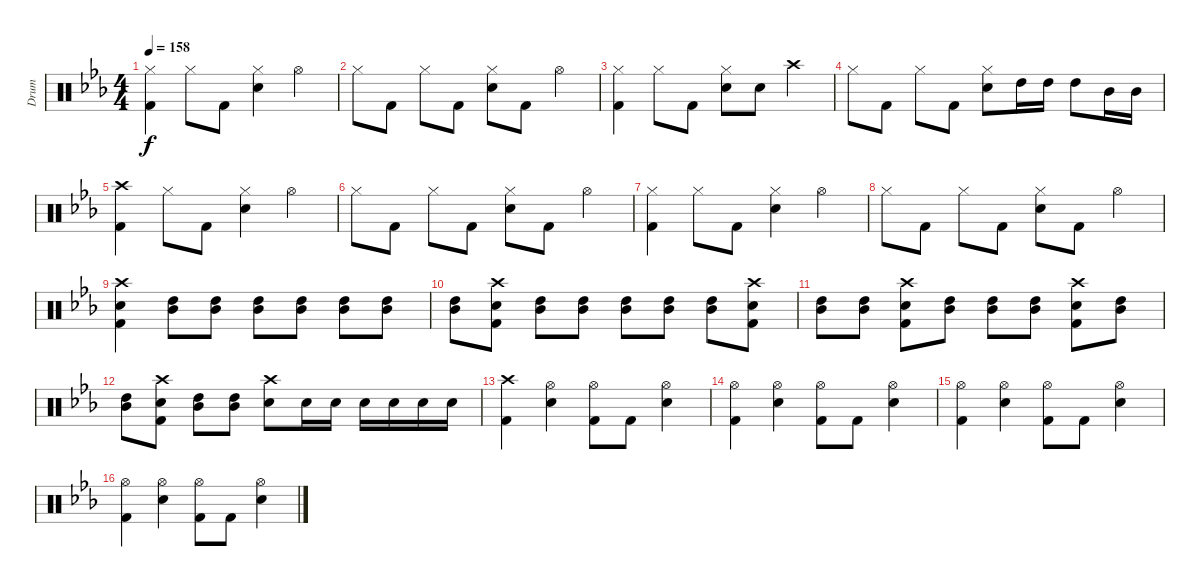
\track ("Drum" "Drum") {instrument percussion}
\staff {score}
\articulation defaults
\ts (4 4)
\tempo 158
\clef neutral
\ks eb
("Hi-Hat (closed)" "Kick (hit) 2").4{dy f} "Hi-Hat (closed)".8 "Kick (hit) 2".8 ("Hi-Hat (closed)" "Snare (hit) 2").4 "Hi-Hat (open)".4 |
"Hi-Hat (closed)".8 "Kick (hit) 2".8 "Hi-Hat (closed)".8 "Kick (hit) 2".8 ("Hi-Hat (closed)" "Snare (hit) 2").8 "Kick (hit) 2".8 "Hi-Hat (open)".4 |
("Hi-Hat (closed)" "Kick (hit) 2").4 "Hi-Hat (closed)".8 "Kick (hit) 2".8 ("Hi-Hat (closed)" "Snare (hit) 2").8 "Snare (hit) 2".8 "Crash high (hit)".4 |
"Hi-Hat (closed)".8 "Kick (hit) 2".8 "Hi-Hat (closed)".8 "Kick (hit) 2".8 ("Hi-Hat (closed)" "Snare (hit) 2").8 "High Tom (hit)".16 "High Tom (hit)".16 "High Tom (hit)".8 "Mid Tom (hit)".16 "Mid Tom (hit)".16 |
("Crash high (hit)" "Kick (hit) 2").4 "Hi-Hat (closed)".8 "Kick (hit) 2".8 ("Hi-Hat (closed)" "Snare (hit) 2").4 "Hi-Hat (open)".4 |
"Hi-Hat (closed)".8 "Kick (hit) 2".8 "Hi-Hat (closed)".8 "Kick (hit) 2".8 ("Hi-Hat (closed)" "Snare (hit) 2").8 "Kick (hit) 2".8 "Hi-Hat (open)".4 |
("Hi-Hat (closed)" "Kick (hit) 2").4 "Hi-Hat (closed)".8 "Kick (hit) 2".8 ("Hi-Hat (closed)" "Snare (hit) 2").4 "Hi-Hat (open)".4 |
"Hi-Hat (closed)".8 "Kick (hit) 2".8 "Hi-Hat (closed)".8 "Kick (hit) 2".8 ("Hi-Hat (closed)" "Snare (hit) 2").8 "Kick (hit) 2".8 "Hi-Hat (open)".4 |
("Crash high (hit)" "Snare (hit) 2" "Kick (hit) 2").4 ("High Tom (hit)" "Mid Tom (hit)").8 ("High Tom (hit)" "Mid Tom (hit)").8 ("High Tom (hit)" "Mid Tom (hit)").8 ("High Tom (hit)" "Mid Tom (hit)").8 ("High Tom (hit)" "Mid Tom (hit)").8 ("High Tom (hit)" "Mid Tom (hit)").8 |
("High Tom (hit)" "Mid Tom (hit)").8 ("Crash high (hit)" "Snare (hit) 2" "Kick (hit) 2").8 ("High Tom (hit)" "Mid Tom (hit)").8 ("High Tom (hit)" "Mid Tom (hit)").8 ("High Tom (hit)" "Mid Tom (hit)").8 ("High Tom (hit)" "Mid Tom (hit)").8 ("High Tom (hit)" "Mid Tom (hit)").8 ("Crash high (hit)" "Snare (hit) 2" "Kick (hit) 2").8 |
("High Tom (hit)" "Mid Tom (hit)").8 ("High Tom (hit)" "Mid Tom (hit)").8 ("Crash high (hit)" "Snare (hit) 2" "Kick (hit) 2").8 ("High Tom (hit)" "Mid Tom (hit)").8 ("High Tom (hit)" "Mid Tom (hit)").8 ("High Tom (hit)" "Mid Tom (hit)").8 ("Crash high (hit)" "Kick (hit) 2" "Snare (hit) 2").8 ("High Tom (hit)" "Mid Tom (hit)").8 |
("High Tom (hit)" "Mid Tom (hit)").8 ("Crash high (hit)" "Snare (hit) 2" "Kick (hit) 2").8 ("High Tom (hit)" "Mid Tom (hit)").8 ("High Tom (hit)" "Mid Tom (hit)").8 ("Crash high (hit)" "Snare (hit) 2").8 "Snare (hit) 2".16 "Snare (hit) 2".16 "Snare (hit) 2".16 "Snare (hit) 2".16 "Snare (hit) 2".16 "Snare (hit) 2".16 |
("Crash high (hit)" "Kick (hit) 2").4 ("Hi-Hat (open)" "Snare (hit) 2").4 ("Hi-Hat (open)" "Kick (hit) 2").8 "Kick (hit) 2".8 ("Hi-Hat (open)" "Snare (hit) 2").4 |
("Hi-Hat (open)" "Kick (hit) 2").4 ("Hi-Hat (open)" "Snare (hit) 2").4 ("Hi-Hat (open)" "Kick (hit) 2").8 "Kick (hit) 2".8 ("Hi-Hat (open)" "Snare (hit) 2").4 |
("Hi-Hat (open)" "Kick (hit) 2").4 ("Hi-Hat (open)" "Snare (hit) 2").4 ("Hi-Hat (open)" "Kick (hit) 2").8 "Kick (hit) 2".8 ("Hi-Hat (open)" "Snare (hit) 2").4 |
("Hi-Hat (open)" "Kick (hit) 2").4 ("Hi-Hat (open)" "Snare (hit) 2").4 ("Hi-Hat (open)" "Kick (hit) 2").8 "Kick (hit) 2".8 ("Hi-Hat (open)" "Snare (hit) 2").4
